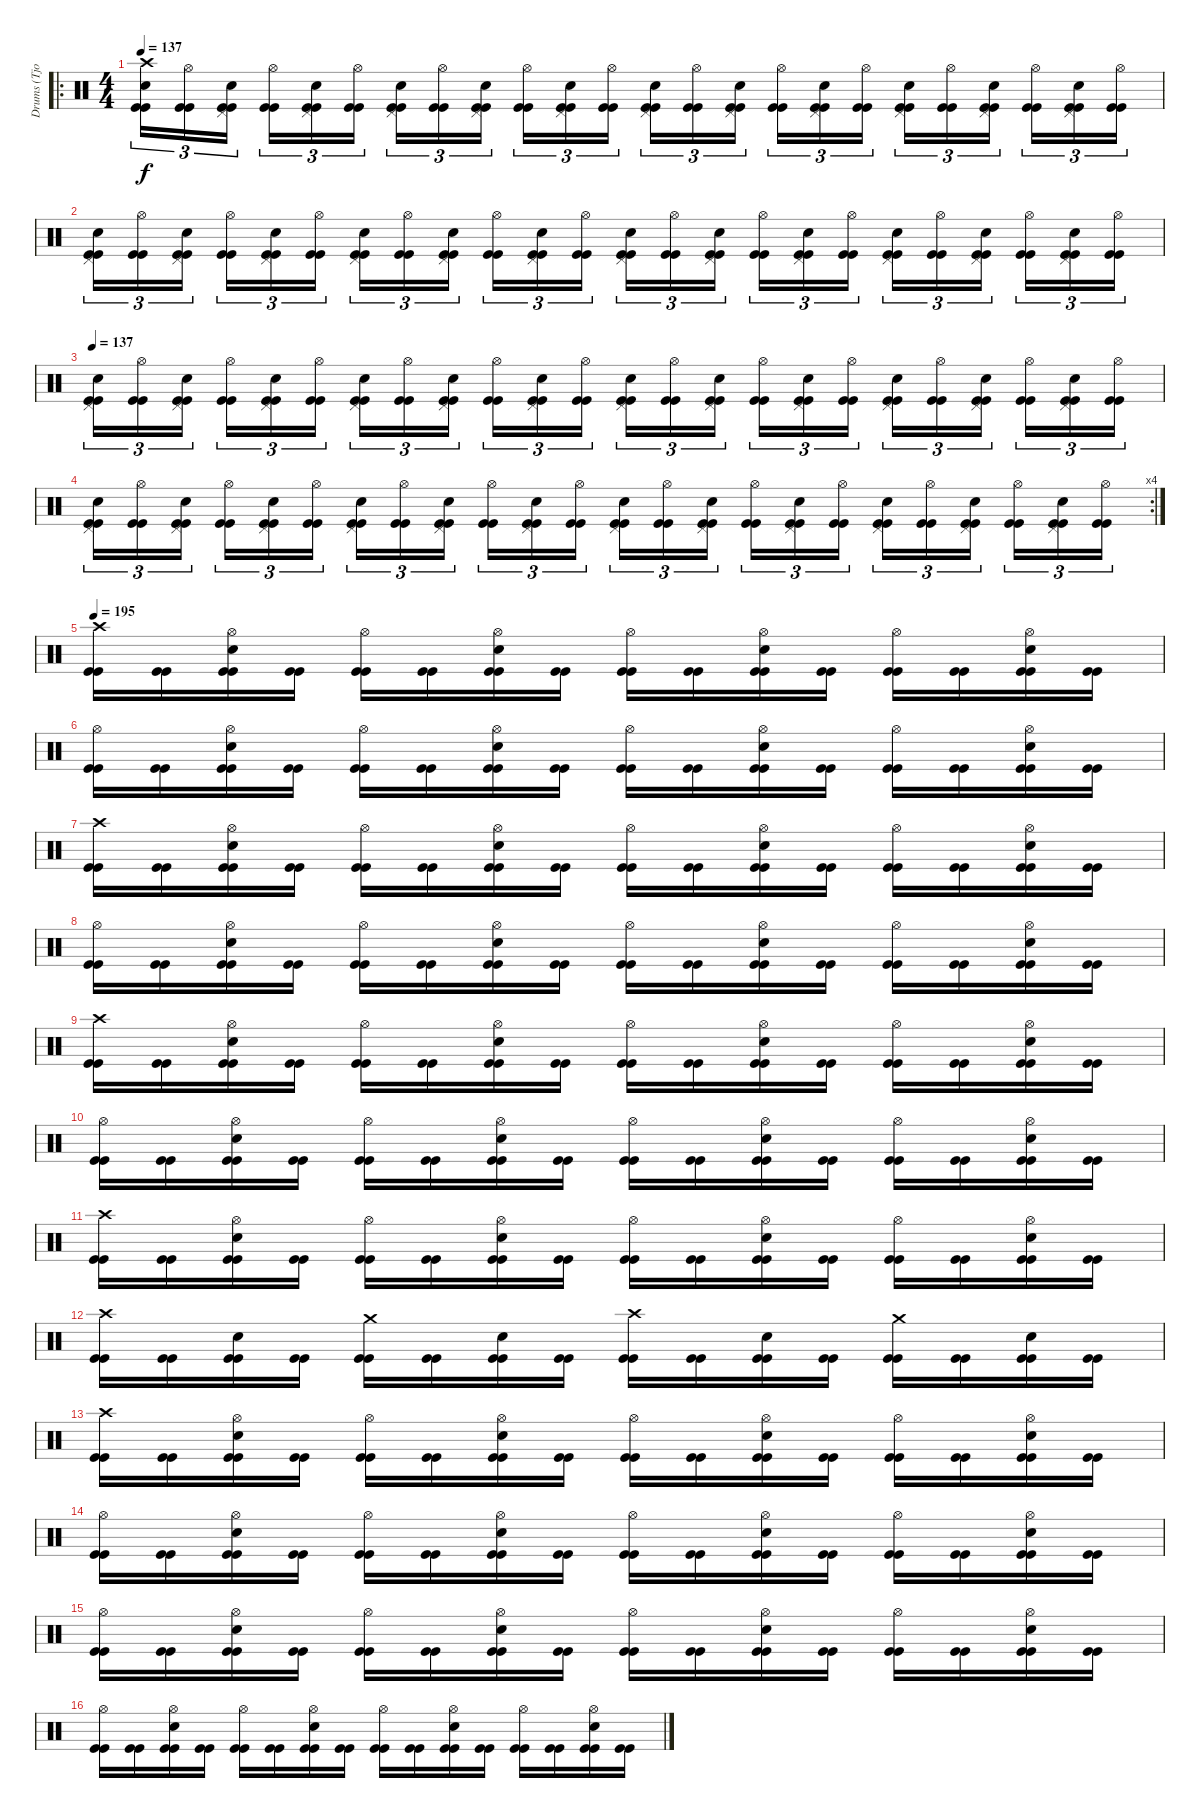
\track ("Drums (Tjodalv)" "Drums (Tjo") {instrument percussion}
\staff {score}
\articulation defaults
\ro
\ts (4 4)
\tempo 137
\clef neutral
\ks c
("Snare (hit) 2" "Crash high (hit)" "Kick (hit)" "Kick (hit)").16{tu (3 2) dy f} ("Hi-Hat (open)" "Kick (hit)" "Kick (hit)").16{tu (3 2)} ("Snare (hit) 2" "Pedal Hi-Hat (hit)" "Kick (hit)" "Kick (hit)").16{tu (3 2)} ("Hi-Hat (open)" "Kick (hit)" "Kick (hit)").16{tu (3 2)} ("Snare (hit) 2" "Pedal Hi-Hat (hit)" "Kick (hit)" "Kick (hit)").16{tu (3 2)} ("Hi-Hat (open)" "Kick (hit)" "Kick (hit)").16{tu (3 2)} ("Snare (hit) 2" "Pedal Hi-Hat (hit)" "Kick (hit)" "Kick (hit)").16{tu (3 2)} ("Hi-Hat (open)" "Kick (hit)" "Kick (hit)").16{tu (3 2)} ("Snare (hit) 2" "Pedal Hi-Hat (hit)" "Kick (hit)" "Kick (hit)").16{tu (3 2)} ("Hi-Hat (open)" "Kick (hit)" "Kick (hit)").16{tu (3 2)} ("Snare (hit) 2" "Pedal Hi-Hat (hit)" "Kick (hit)" "Kick (hit)").16{tu (3 2)} ("Hi-Hat (open)" "Kick (hit)" "Kick (hit)").16{tu (3 2)} ("Snare (hit) 2" "Pedal Hi-Hat (hit)" "Kick (hit)" "Kick (hit)").16{tu (3 2)} ("Hi-Hat (open)" "Kick (hit)" "Kick (hit)").16{tu (3 2)} ("Snare (hit) 2" "Pedal Hi-Hat (hit)" "Kick (hit)" "Kick (hit)").16{tu (3 2)} ("Hi-Hat (open)" "Kick (hit)" "Kick (hit)").16{tu (3 2)} ("Snare (hit) 2" "Pedal Hi-Hat (hit)" "Kick (hit)" "Kick (hit)").16{tu (3 2)} ("Hi-Hat (open)" "Kick (hit)" "Kick (hit)").16{tu (3 2)} ("Snare (hit) 2" "Pedal Hi-Hat (hit)" "Kick (hit)" "Kick (hit)").16{tu (3 2)} ("Hi-Hat (open)" "Kick (hit)" "Kick (hit)").16{tu (3 2)} ("Snare (hit) 2" "Pedal Hi-Hat (hit)" "Kick (hit)" "Kick (hit)").16{tu (3 2)} ("Hi-Hat (open)" "Kick (hit)" "Kick (hit)").16{tu (3 2)} ("Snare (hit) 2" "Pedal Hi-Hat (hit)" "Kick (hit)" "Kick (hit)").16{tu (3 2)} ("Hi-Hat (open)" "Kick (hit)" "Kick (hit)").16{tu (3 2)} |
("Snare (hit) 2" "Pedal Hi-Hat (hit)" "Kick (hit)" "Kick (hit)").16{tu (3 2)} ("Hi-Hat (open)" "Kick (hit)" "Kick (hit)").16{tu (3 2)} ("Snare (hit) 2" "Pedal Hi-Hat (hit)" "Kick (hit)" "Kick (hit)").16{tu (3 2)} ("Hi-Hat (open)" "Kick (hit)" "Kick (hit)").16{tu (3 2)} ("Snare (hit) 2" "Pedal Hi-Hat (hit)" "Kick (hit)" "Kick (hit)").16{tu (3 2)} ("Hi-Hat (open)" "Kick (hit)" "Kick (hit)").16{tu (3 2)} ("Snare (hit) 2" "Pedal Hi-Hat (hit)" "Kick (hit)" "Kick (hit)").16{tu (3 2)} ("Hi-Hat (open)" "Kick (hit)" "Kick (hit)").16{tu (3 2)} ("Snare (hit) 2" "Pedal Hi-Hat (hit)" "Kick (hit)" "Kick (hit)").16{tu (3 2)} ("Hi-Hat (open)" "Kick (hit)" "Kick (hit)").16{tu (3 2)} ("Snare (hit) 2" "Pedal Hi-Hat (hit)" "Kick (hit)" "Kick (hit)").16{tu (3 2)} ("Hi-Hat (open)" "Kick (hit)" "Kick (hit)").16{tu (3 2)} ("Snare (hit) 2" "Pedal Hi-Hat (hit)" "Kick (hit)" "Kick (hit)").16{tu (3 2)} ("Hi-Hat (open)" "Kick (hit)" "Kick (hit)").16{tu (3 2)} ("Snare (hit) 2" "Pedal Hi-Hat (hit)" "Kick (hit)" "Kick (hit)").16{tu (3 2)} ("Hi-Hat (open)" "Kick (hit)" "Kick (hit)").16{tu (3 2)} ("Snare (hit) 2" "Pedal Hi-Hat (hit)" "Kick (hit)" "Kick (hit)").16{tu (3 2)} ("Hi-Hat (open)" "Kick (hit)" "Kick (hit)").16{tu (3 2)} ("Snare (hit) 2" "Pedal Hi-Hat (hit)" "Kick (hit)" "Kick (hit)").16{tu (3 2)} ("Hi-Hat (open)" "Kick (hit)" "Kick (hit)").16{tu (3 2)} ("Snare (hit) 2" "Pedal Hi-Hat (hit)" "Kick (hit)" "Kick (hit)").16{tu (3 2)} ("Hi-Hat (open)" "Kick (hit)" "Kick (hit)").16{tu (3 2)} ("Snare (hit) 2" "Pedal Hi-Hat (hit)" "Kick (hit)" "Kick (hit)").16{tu (3 2)} ("Hi-Hat (open)" "Kick (hit)" "Kick (hit)").16{tu (3 2)} |
\tempo 137
("Snare (hit) 2" "Pedal Hi-Hat (hit)" "Kick (hit)" "Kick (hit)").16{tu (3 2)} ("Hi-Hat (open)" "Kick (hit)" "Kick (hit)").16{tu (3 2)} ("Snare (hit) 2" "Pedal Hi-Hat (hit)" "Kick (hit)" "Kick (hit)").16{tu (3 2)} ("Hi-Hat (open)" "Kick (hit)" "Kick (hit)").16{tu (3 2)} ("Snare (hit) 2" "Pedal Hi-Hat (hit)" "Kick (hit)" "Kick (hit)").16{tu (3 2)} ("Hi-Hat (open)" "Kick (hit)" "Kick (hit)").16{tu (3 2)} ("Snare (hit) 2" "Pedal Hi-Hat (hit)" "Kick (hit)" "Kick (hit)").16{tu (3 2)} ("Hi-Hat (open)" "Kick (hit)" "Kick (hit)").16{tu (3 2)} ("Snare (hit) 2" "Pedal Hi-Hat (hit)" "Kick (hit)" "Kick (hit)").16{tu (3 2)} ("Hi-Hat (open)" "Kick (hit)" "Kick (hit)").16{tu (3 2)} ("Snare (hit) 2" "Pedal Hi-Hat (hit)" "Kick (hit)" "Kick (hit)").16{tu (3 2)} ("Hi-Hat (open)" "Kick (hit)" "Kick (hit)").16{tu (3 2)} ("Snare (hit) 2" "Pedal Hi-Hat (hit)" "Kick (hit)" "Kick (hit)").16{tu (3 2)} ("Hi-Hat (open)" "Kick (hit)" "Kick (hit)").16{tu (3 2)} ("Snare (hit) 2" "Pedal Hi-Hat (hit)" "Kick (hit)" "Kick (hit)").16{tu (3 2)} ("Hi-Hat (open)" "Kick (hit)" "Kick (hit)").16{tu (3 2)} ("Snare (hit) 2" "Pedal Hi-Hat (hit)" "Kick (hit)" "Kick (hit)").16{tu (3 2)} ("Hi-Hat (open)" "Kick (hit)" "Kick (hit)").16{tu (3 2)} ("Snare (hit) 2" "Pedal Hi-Hat (hit)" "Kick (hit)" "Kick (hit)").16{tu (3 2)} ("Hi-Hat (open)" "Kick (hit)" "Kick (hit)").16{tu (3 2)} ("Snare (hit) 2" "Pedal Hi-Hat (hit)" "Kick (hit)" "Kick (hit)").16{tu (3 2)} ("Hi-Hat (open)" "Kick (hit)" "Kick (hit)").16{tu (3 2)} ("Snare (hit) 2" "Pedal Hi-Hat (hit)" "Kick (hit)" "Kick (hit)").16{tu (3 2)} ("Hi-Hat (open)" "Kick (hit)" "Kick (hit)").16{tu (3 2)} |
\rc 4
("Snare (hit) 2" "Pedal Hi-Hat (hit)" "Kick (hit)" "Kick (hit)").16{tu (3 2)} ("Hi-Hat (open)" "Kick (hit)" "Kick (hit)").16{tu (3 2)} ("Snare (hit) 2" "Pedal Hi-Hat (hit)" "Kick (hit)" "Kick (hit)").16{tu (3 2)} ("Hi-Hat (open)" "Kick (hit)" "Kick (hit)").16{tu (3 2)} ("Snare (hit) 2" "Pedal Hi-Hat (hit)" "Kick (hit)" "Kick (hit)").16{tu (3 2)} ("Hi-Hat (open)" "Kick (hit)" "Kick (hit)").16{tu (3 2)} ("Snare (hit) 2" "Pedal Hi-Hat (hit)" "Kick (hit)" "Kick (hit)").16{tu (3 2)} ("Hi-Hat (open)" "Kick (hit)" "Kick (hit)").16{tu (3 2)} ("Snare (hit) 2" "Pedal Hi-Hat (hit)" "Kick (hit)" "Kick (hit)").16{tu (3 2)} ("Hi-Hat (open)" "Kick (hit)" "Kick (hit)").16{tu (3 2)} ("Snare (hit) 2" "Pedal Hi-Hat (hit)" "Kick (hit)" "Kick (hit)").16{tu (3 2)} ("Hi-Hat (open)" "Kick (hit)" "Kick (hit)").16{tu (3 2)} ("Snare (hit) 2" "Pedal Hi-Hat (hit)" "Kick (hit)" "Kick (hit)").16{tu (3 2)} ("Hi-Hat (open)" "Kick (hit)" "Kick (hit)").16{tu (3 2)} ("Snare (hit) 2" "Pedal Hi-Hat (hit)" "Kick (hit)" "Kick (hit)").16{tu (3 2)} ("Hi-Hat (open)" "Kick (hit)" "Kick (hit)").16{tu (3 2)} ("Snare (hit) 2" "Pedal Hi-Hat (hit)" "Kick (hit)" "Kick (hit)").16{tu (3 2)} ("Hi-Hat (open)" "Kick (hit)" "Kick (hit)").16{tu (3 2)} ("Snare (hit) 2" "Pedal Hi-Hat (hit)" "Kick (hit)" "Kick (hit)").16{tu (3 2)} ("Hi-Hat (open)" "Kick (hit)" "Kick (hit)").16{tu (3 2)} ("Snare (hit) 2" "Pedal Hi-Hat (hit)" "Kick (hit)" "Kick (hit)").16{tu (3 2)} ("Hi-Hat (open)" "Kick (hit)" "Kick (hit)").16{tu (3 2)} ("Snare (hit) 2" "Pedal Hi-Hat (hit)" "Kick (hit)" "Kick (hit)").16{tu (3 2)} ("Hi-Hat (open)" "Kick (hit)" "Kick (hit)").16{tu (3 2)} |
\tempo 195
("Crash high (hit)" "Kick (hit)" "Kick (hit)").16 ("Kick (hit)" "Kick (hit)").16 ("Snare (hit) 2" "Hi-Hat (open)" "Kick (hit)" "Kick (hit)").16 ("Kick (hit)" "Kick (hit)").16 ("Hi-Hat (open)" "Kick (hit)" "Kick (hit)").16 ("Kick (hit)" "Kick (hit)").16 ("Snare (hit) 2" "Hi-Hat (open)" "Kick (hit)" "Kick (hit)").16 ("Kick (hit)" "Kick (hit)").16 ("Hi-Hat (open)" "Kick (hit)" "Kick (hit)").16 ("Kick (hit)" "Kick (hit)").16 ("Snare (hit) 2" "Hi-Hat (open)" "Kick (hit)" "Kick (hit)").16 ("Kick (hit)" "Kick (hit)").16 ("Hi-Hat (open)" "Kick (hit)" "Kick (hit)").16 ("Kick (hit)" "Kick (hit)").16 ("Snare (hit) 2" "Hi-Hat (open)" "Kick (hit)" "Kick (hit)").16 ("Kick (hit)" "Kick (hit)").16 |
("Hi-Hat (open)" "Kick (hit)" "Kick (hit)").16 ("Kick (hit)" "Kick (hit)").16 ("Snare (hit) 2" "Hi-Hat (open)" "Kick (hit)" "Kick (hit)").16 ("Kick (hit)" "Kick (hit)").16 ("Hi-Hat (open)" "Kick (hit)" "Kick (hit)").16 ("Kick (hit)" "Kick (hit)").16 ("Snare (hit) 2" "Hi-Hat (open)" "Kick (hit)" "Kick (hit)").16 ("Kick (hit)" "Kick (hit)").16 ("Hi-Hat (open)" "Kick (hit)" "Kick (hit)").16 ("Kick (hit)" "Kick (hit)").16 ("Snare (hit) 2" "Hi-Hat (open)" "Kick (hit)" "Kick (hit)").16 ("Kick (hit)" "Kick (hit)").16 ("Hi-Hat (open)" "Kick (hit)" "Kick (hit)").16 ("Kick (hit)" "Kick (hit)").16 ("Snare (hit) 2" "Hi-Hat (open)" "Kick (hit)" "Kick (hit)").16 ("Kick (hit)" "Kick (hit)").16 |
("Crash high (hit)" "Kick (hit)" "Kick (hit)").16 ("Kick (hit)" "Kick (hit)").16 ("Snare (hit) 2" "Hi-Hat (open)" "Kick (hit)" "Kick (hit)").16 ("Kick (hit)" "Kick (hit)").16 ("Hi-Hat (open)" "Kick (hit)" "Kick (hit)").16 ("Kick (hit)" "Kick (hit)").16 ("Snare (hit) 2" "Hi-Hat (open)" "Kick (hit)" "Kick (hit)").16 ("Kick (hit)" "Kick (hit)").16 ("Hi-Hat (open)" "Kick (hit)" "Kick (hit)").16 ("Kick (hit)" "Kick (hit)").16 ("Snare (hit) 2" "Hi-Hat (open)" "Kick (hit)" "Kick (hit)").16 ("Kick (hit)" "Kick (hit)").16 ("Hi-Hat (open)" "Kick (hit)" "Kick (hit)").16 ("Kick (hit)" "Kick (hit)").16 ("Snare (hit) 2" "Hi-Hat (open)" "Kick (hit)" "Kick (hit)").16 ("Kick (hit)" "Kick (hit)").16 |
("Hi-Hat (open)" "Kick (hit)" "Kick (hit)").16 ("Kick (hit)" "Kick (hit)").16 ("Snare (hit) 2" "Hi-Hat (open)" "Kick (hit)" "Kick (hit)").16 ("Kick (hit)" "Kick (hit)").16 ("Hi-Hat (open)" "Kick (hit)" "Kick (hit)").16 ("Kick (hit)" "Kick (hit)").16 ("Snare (hit) 2" "Hi-Hat (open)" "Kick (hit)" "Kick (hit)").16 ("Kick (hit)" "Kick (hit)").16 ("Hi-Hat (open)" "Kick (hit)" "Kick (hit)").16 ("Kick (hit)" "Kick (hit)").16 ("Snare (hit) 2" "Hi-Hat (open)" "Kick (hit)" "Kick (hit)").16 ("Kick (hit)" "Kick (hit)").16 ("Hi-Hat (open)" "Kick (hit)" "Kick (hit)").16 ("Kick (hit)" "Kick (hit)").16 ("Snare (hit) 2" "Hi-Hat (open)" "Kick (hit)" "Kick (hit)").16 ("Kick (hit)" "Kick (hit)").16 |
("Crash high (hit)" "Kick (hit)" "Kick (hit)").16 ("Kick (hit)" "Kick (hit)").16 ("Snare (hit) 2" "Hi-Hat (open)" "Kick (hit)" "Kick (hit)").16 ("Kick (hit)" "Kick (hit)").16 ("Hi-Hat (open)" "Kick (hit)" "Kick (hit)").16 ("Kick (hit)" "Kick (hit)").16 ("Snare (hit) 2" "Hi-Hat (open)" "Kick (hit)" "Kick (hit)").16 ("Kick (hit)" "Kick (hit)").16 ("Hi-Hat (open)" "Kick (hit)" "Kick (hit)").16 ("Kick (hit)" "Kick (hit)").16 ("Snare (hit) 2" "Hi-Hat (open)" "Kick (hit)" "Kick (hit)").16 ("Kick (hit)" "Kick (hit)").16 ("Hi-Hat (open)" "Kick (hit)" "Kick (hit)").16 ("Kick (hit)" "Kick (hit)").16 ("Snare (hit) 2" "Hi-Hat (open)" "Kick (hit)" "Kick (hit)").16 ("Kick (hit)" "Kick (hit)").16 |
("Hi-Hat (open)" "Kick (hit)" "Kick (hit)").16 ("Kick (hit)" "Kick (hit)").16 ("Snare (hit) 2" "Hi-Hat (open)" "Kick (hit)" "Kick (hit)").16 ("Kick (hit)" "Kick (hit)").16 ("Hi-Hat (open)" "Kick (hit)" "Kick (hit)").16 ("Kick (hit)" "Kick (hit)").16 ("Snare (hit) 2" "Hi-Hat (open)" "Kick (hit)" "Kick (hit)").16 ("Kick (hit)" "Kick (hit)").16 ("Hi-Hat (open)" "Kick (hit)" "Kick (hit)").16 ("Kick (hit)" "Kick (hit)").16 ("Snare (hit) 2" "Hi-Hat (open)" "Kick (hit)" "Kick (hit)").16 ("Kick (hit)" "Kick (hit)").16 ("Hi-Hat (open)" "Kick (hit)" "Kick (hit)").16 ("Kick (hit)" "Kick (hit)").16 ("Snare (hit) 2" "Hi-Hat (open)" "Kick (hit)" "Kick (hit)").16 ("Kick (hit)" "Kick (hit)").16 |
("Crash high (hit)" "Kick (hit)" "Kick (hit)").16 ("Kick (hit)" "Kick (hit)").16 ("Snare (hit) 2" "Hi-Hat (open)" "Kick (hit)" "Kick (hit)").16 ("Kick (hit)" "Kick (hit)").16 ("Hi-Hat (open)" "Kick (hit)" "Kick (hit)").16 ("Kick (hit)" "Kick (hit)").16 ("Snare (hit) 2" "Hi-Hat (open)" "Kick (hit)" "Kick (hit)").16 ("Kick (hit)" "Kick (hit)").16 ("Hi-Hat (open)" "Kick (hit)" "Kick (hit)").16 ("Kick (hit)" "Kick (hit)").16 ("Snare (hit) 2" "Hi-Hat (open)" "Kick (hit)" "Kick (hit)").16 ("Kick (hit)" "Kick (hit)").16 ("Hi-Hat (open)" "Kick (hit)" "Kick (hit)").16 ("Kick (hit)" "Kick (hit)").16 ("Snare (hit) 2" "Hi-Hat (open)" "Kick (hit)" "Kick (hit)").16 ("Kick (hit)" "Kick (hit)").16 |
("Crash high (hit)" "Kick (hit)" "Kick (hit)").16 ("Kick (hit)" "Kick (hit)").16 ("Snare (hit) 2" "Kick (hit)" "Kick (hit)").16 ("Kick (hit)" "Kick (hit)").16 ("Crash medium (hit)" "Kick (hit)" "Kick (hit)").16 ("Kick (hit)" "Kick (hit)").16 ("Snare (hit) 2" "Kick (hit)" "Kick (hit)").16 ("Kick (hit)" "Kick (hit)").16 ("Crash high (hit)" "Kick (hit)" "Kick (hit)").16 ("Kick (hit)" "Kick (hit)").16 ("Snare (hit) 2" "Kick (hit)" "Kick (hit)").16 ("Kick (hit)" "Kick (hit)").16 ("Crash medium (hit)" "Kick (hit)" "Kick (hit)").16 ("Kick (hit)" "Kick (hit)").16 ("Snare (hit) 2" "Kick (hit)" "Kick (hit)").16 ("Kick (hit)" "Kick (hit)").16 |
("Crash high (hit)" "Kick (hit)" "Kick (hit)").16 ("Kick (hit)" "Kick (hit)").16 ("Snare (hit) 2" "Hi-Hat (open)" "Kick (hit)" "Kick (hit)").16 ("Kick (hit)" "Kick (hit)").16 ("Hi-Hat (open)" "Kick (hit)" "Kick (hit)").16 ("Kick (hit)" "Kick (hit)").16 ("Snare (hit) 2" "Hi-Hat (open)" "Kick (hit)" "Kick (hit)").16 ("Kick (hit)" "Kick (hit)").16 ("Hi-Hat (open)" "Kick (hit)" "Kick (hit)").16 ("Kick (hit)" "Kick (hit)").16 ("Snare (hit) 2" "Hi-Hat (open)" "Kick (hit)" "Kick (hit)").16 ("Kick (hit)" "Kick (hit)").16 ("Hi-Hat (open)" "Kick (hit)" "Kick (hit)").16 ("Kick (hit)" "Kick (hit)").16 ("Snare (hit) 2" "Hi-Hat (open)" "Kick (hit)" "Kick (hit)").16 ("Kick (hit)" "Kick (hit)").16 |
("Hi-Hat (open)" "Kick (hit)" "Kick (hit)").16 ("Kick (hit)" "Kick (hit)").16 ("Snare (hit) 2" "Hi-Hat (open)" "Kick (hit)" "Kick (hit)").16 ("Kick (hit)" "Kick (hit)").16 ("Hi-Hat (open)" "Kick (hit)" "Kick (hit)").16 ("Kick (hit)" "Kick (hit)").16 ("Snare (hit) 2" "Hi-Hat (open)" "Kick (hit)" "Kick (hit)").16 ("Kick (hit)" "Kick (hit)").16 ("Hi-Hat (open)" "Kick (hit)" "Kick (hit)").16 ("Kick (hit)" "Kick (hit)").16 ("Snare (hit) 2" "Hi-Hat (open)" "Kick (hit)" "Kick (hit)").16 ("Kick (hit)" "Kick (hit)").16 ("Hi-Hat (open)" "Kick (hit)" "Kick (hit)").16 ("Kick (hit)" "Kick (hit)").16 ("Snare (hit) 2" "Hi-Hat (open)" "Kick (hit)" "Kick (hit)").16 ("Kick (hit)" "Kick (hit)").16 |
("Hi-Hat (open)" "Kick (hit)" "Kick (hit)").16 ("Kick (hit)" "Kick (hit)").16 ("Snare (hit) 2" "Hi-Hat (open)" "Kick (hit)" "Kick (hit)").16 ("Kick (hit)" "Kick (hit)").16 ("Hi-Hat (open)" "Kick (hit)" "Kick (hit)").16 ("Kick (hit)" "Kick (hit)").16 ("Snare (hit) 2" "Hi-Hat (open)" "Kick (hit)" "Kick (hit)").16 ("Kick (hit)" "Kick (hit)").16 ("Hi-Hat (open)" "Kick (hit)" "Kick (hit)").16 ("Kick (hit)" "Kick (hit)").16 ("Snare (hit) 2" "Hi-Hat (open)" "Kick (hit)" "Kick (hit)").16 ("Kick (hit)" "Kick (hit)").16 ("Hi-Hat (open)" "Kick (hit)" "Kick (hit)").16 ("Kick (hit)" "Kick (hit)").16 ("Snare (hit) 2" "Hi-Hat (open)" "Kick (hit)" "Kick (hit)").16 ("Kick (hit)" "Kick (hit)").16 |
("Hi-Hat (open)" "Kick (hit)" "Kick (hit)").16 ("Kick (hit)" "Kick (hit)").16 ("Snare (hit) 2" "Hi-Hat (open)" "Kick (hit)" "Kick (hit)").16 ("Kick (hit)" "Kick (hit)").16 ("Hi-Hat (open)" "Kick (hit)" "Kick (hit)").16 ("Kick (hit)" "Kick (hit)").16 ("Snare (hit) 2" "Hi-Hat (open)" "Kick (hit)" "Kick (hit)").16 ("Kick (hit)" "Kick (hit)").16 ("Hi-Hat (open)" "Kick (hit)" "Kick (hit)").16 ("Kick (hit)" "Kick (hit)").16 ("Snare (hit) 2" "Hi-Hat (open)" "Kick (hit)" "Kick (hit)").16 ("Kick (hit)" "Kick (hit)").16 ("Hi-Hat (open)" "Kick (hit)" "Kick (hit)").16 ("Kick (hit)" "Kick (hit)").16 ("Snare (hit) 2" "Hi-Hat (open)" "Kick (hit)" "Kick (hit)").16 ("Kick (hit)" "Kick (hit)").16
